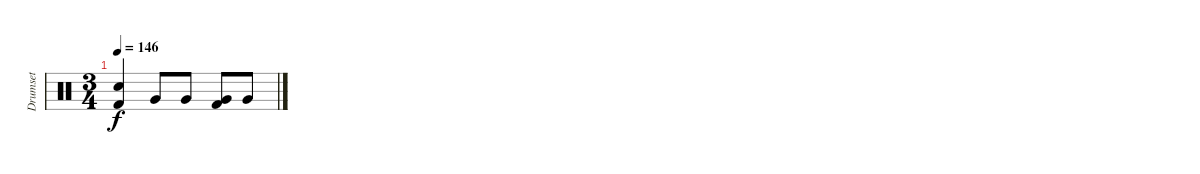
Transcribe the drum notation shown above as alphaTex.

\track ("Drumset" "Drumset") {instrument percussion}
\staff {score}
\articulation defaults
\ts (3 4)
\tempo 146
\clef neutral
\ks c
("Kick (hit) 2" "Electric Snare (hit)").4{dy f} "Very Low Tom (hit)".8 "Very Low Tom (hit)".8 ("Kick (hit) 2" "Very Low Tom (hit)").8 "Very Low Tom (hit)".8
